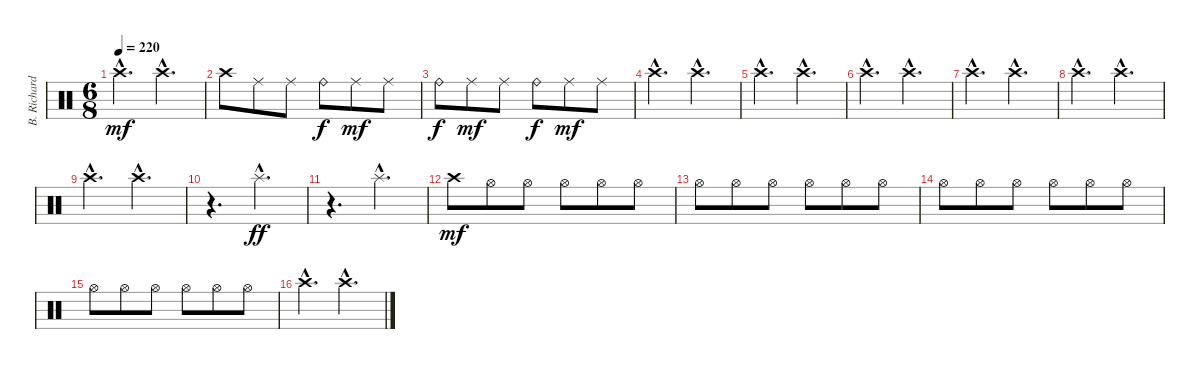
\track ("B. Richardson Drums" "B. Richard") {instrument percussion}
\staff {score}
\articulation defaults
\ts (6 8)
\tempo 220
\clef neutral
\ks c "Crash high (hit)"{hac}.4{d dy mf} "Crash high (hit)"{hac}.4{d}
|
"Crash high (hit)".8 "Ride (middle)".8 "Ride (middle)".8 "Ride (bell)".8{dy f} "Ride (middle)".8{dy mf} "Ride (middle)".8 |
"Ride (bell)".8{dy f} "Ride (middle)".8{dy mf} "Ride (middle)".8 "Ride (bell)".8{dy f} "Ride (middle)".8{dy mf} "Ride (middle)".8 |
"Crash high (hit)"{hac}.4{d} "Crash high (hit)"{hac}.4{d} |
"Crash high (hit)"{hac}.4{d} "Crash high (hit)"{hac}.4{d} |
"Crash high (hit)"{hac}.4{d} "Crash high (hit)"{hac}.4{d} |
"Crash high (hit)"{hac}.4{d} "Crash high (hit)"{hac}.4{d} |
"Crash high (hit)"{hac}.4{d} "Crash high (hit)"{hac}.4{d} |
"Crash high (hit)"{hac}.4{d} "Crash high (hit)"{hac}.4{d} |
r.4{d} "Splash (hit)"{hac}.4{d dy ff} |
r.4{d} "Splash (hit)"{hac}.4{d} |
"Crash high (hit)".8{dy mf} "Hi-Hat (open)".8 "Hi-Hat (open)".8 "Hi-Hat (open)".8 "Hi-Hat (open)".8 "Hi-Hat (open)".8 |
"Hi-Hat (open)".8 "Hi-Hat (open)".8 "Hi-Hat (open)".8 "Hi-Hat (open)".8 "Hi-Hat (open)".8 "Hi-Hat (open)".8 |
"Hi-Hat (open)".8 "Hi-Hat (open)".8 "Hi-Hat (open)".8 "Hi-Hat (open)".8 "Hi-Hat (open)".8 "Hi-Hat (open)".8 |
"Hi-Hat (open)".8 "Hi-Hat (open)".8 "Hi-Hat (open)".8 "Hi-Hat (open)".8 "Hi-Hat (open)".8 "Hi-Hat (open)".8 |
"Crash high (hit)"{hac}.4{d} "Crash high (hit)"{hac}.4{d}
